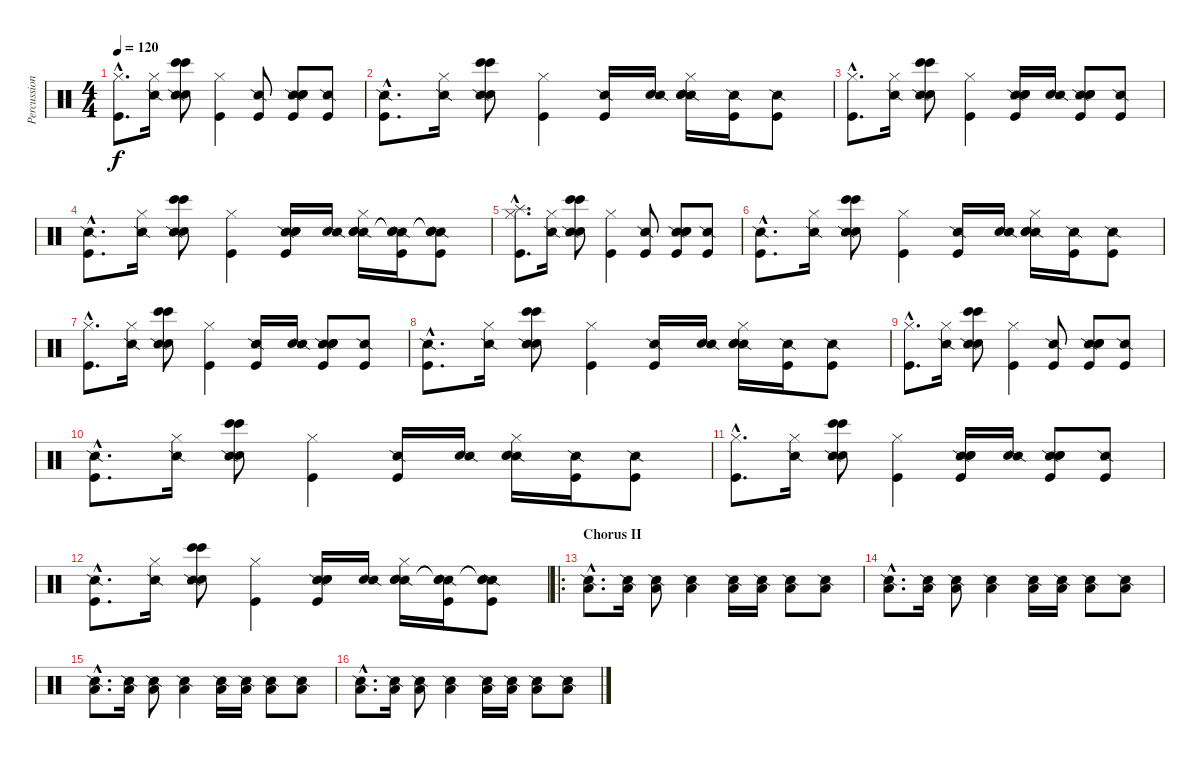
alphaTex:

\track ("Percussion" "Percussion") {instrument percussion}
\staff {score}
\articulation defaults
\ts (4 4)
\tempo 120
\clef neutral
\ks c
("Kick (hit)"{hac} "Hi-Hat (closed)"{hac}).8{d dy f} ("Hi-Hat (closed)" "Snare (side stick) 2").16 ("Snare (hit) 2" "Snare (side stick) 2" "Bongo High (hit)" "Bongo High (hit)").8 ("Kick (hit)" "Hi-Hat (closed)").4 ("Kick (hit)" "Snare (side stick) 2").8 ("Kick (hit)" "Snare (side stick) 2" "Electric Snare (hit)" "Electric Snare (hit)").8 ("Kick (hit)" "Snare (side stick) 2").8 |
("Kick (hit)"{hac} "Snare (side stick) 2"{hac}).8{d} ("Hi-Hat (closed)" "Snare (side stick) 2").16 ("Snare (hit) 2" "Snare (side stick) 2" "Bongo High (hit)" "Bongo High (hit)").8 ("Kick (hit)" "Hi-Hat (closed)").4 ("Kick (hit)" "Snare (side stick) 2").16 ("Snare (hit) 2" "Snare (side stick) 2").16 ("Hi-Hat (closed)" "Snare (side stick) 2" "Electric Snare (hit)" "Electric Snare (hit)").16 ("Kick (hit)" "Snare (side stick) 2").16 ("Kick (hit)" "Snare (side stick) 2").8 |
("Kick (hit)"{hac} "Hi-Hat (closed)"{hac}).8{d} ("Hi-Hat (closed)" "Snare (side stick) 2").16 ("Snare (hit) 2" "Snare (side stick) 2" "Bongo High (hit)" "Bongo High (hit)").8 ("Kick (hit)" "Hi-Hat (closed)").4 ("Kick (hit)" "Snare (side stick) 2" "Electric Snare (hit)" "Electric Snare (hit)").16 ("Snare (hit) 2" "Snare (side stick) 2").16 ("Kick (hit)" "Snare (side stick) 2" "Electric Snare (hit)" "Electric Snare (hit)").8 ("Kick (hit)" "Snare (side stick) 2").8 |
("Kick (hit)"{hac} "Snare (side stick) 2"{hac}).8{d} ("Hi-Hat (closed)" "Snare (side stick) 2").16 ("Snare (hit) 2" "Snare (side stick) 2" "Bongo High (hit)" "Bongo High (hit)").8 ("Kick (hit)" "Hi-Hat (closed)").4 ("Kick (hit)" "Snare (side stick) 2" "Electric Snare (hit)" "Electric Snare (hit)").16 ("Snare (hit) 2" "Snare (side stick) 2").16 ("Hi-Hat (closed)" "Snare (side stick) 2" "Electric Snare (hit)" "Electric Snare (hit)").16 ("Kick (hit)" "Snare (side stick) 2" "Snare (hit)"{t} "Snare (hit)"{t}).16 ("Kick (hit)" "Snare (side stick) 2" "Snare (hit)"{t} "Snare (hit)"{t}).8 |
("Kick (hit)"{hac} "Hi-Hat (closed)"{hac} "Splash (hit)"{hac}).8{d} ("Hi-Hat (closed)" "Snare (side stick) 2").16 ("Snare (hit) 2" "Snare (side stick) 2" "Bongo High (hit)" "Bongo High (hit)").8 ("Kick (hit)" "Hi-Hat (closed)").4 ("Kick (hit)" "Snare (side stick) 2").8 ("Kick (hit)" "Snare (side stick) 2" "Electric Snare (hit)" "Electric Snare (hit)").8 ("Kick (hit)" "Snare (side stick) 2").8 |
("Kick (hit)"{hac} "Snare (side stick) 2"{hac}).8{d} ("Hi-Hat (closed)" "Snare (side stick) 2").16 ("Snare (hit) 2" "Snare (side stick) 2" "Bongo High (hit)" "Bongo High (hit)").8 ("Kick (hit)" "Hi-Hat (closed)").4 ("Kick (hit)" "Snare (side stick) 2").16 ("Snare (hit) 2" "Snare (side stick) 2").16 ("Hi-Hat (closed)" "Snare (side stick) 2" "Electric Snare (hit)" "Electric Snare (hit)").16 ("Kick (hit)" "Snare (side stick) 2").16 ("Kick (hit)" "Snare (side stick) 2").8 |
("Kick (hit)"{hac} "Hi-Hat (closed)"{hac}).8{d} ("Hi-Hat (closed)" "Snare (side stick) 2").16 ("Snare (hit) 2" "Snare (side stick) 2" "Bongo High (hit)" "Bongo High (hit)").8 ("Kick (hit)" "Hi-Hat (closed)").4 ("Kick (hit)" "Snare (side stick) 2").16 ("Snare (hit) 2" "Snare (side stick) 2").16 ("Kick (hit)" "Snare (side stick) 2" "Electric Snare (hit)" "Electric Snare (hit)").8 ("Kick (hit)" "Snare (side stick) 2").8 |
("Kick (hit)"{hac} "Snare (side stick) 2"{hac}).8{d} ("Hi-Hat (closed)" "Snare (side stick) 2").16 ("Snare (hit) 2" "Snare (side stick) 2" "Bongo High (hit)" "Bongo High (hit)").8 ("Kick (hit)" "Hi-Hat (closed)").4 ("Kick (hit)" "Snare (side stick) 2").16 ("Snare (hit) 2" "Snare (side stick) 2").16 ("Hi-Hat (closed)" "Snare (side stick) 2" "Electric Snare (hit)" "Electric Snare (hit)").16 ("Kick (hit)" "Snare (side stick) 2").16 ("Kick (hit)" "Snare (side stick) 2").8 |
("Kick (hit)"{hac} "Hi-Hat (closed)"{hac}).8{d} ("Hi-Hat (closed)" "Snare (side stick) 2").16 ("Snare (hit) 2" "Snare (side stick) 2" "Bongo High (hit)" "Bongo High (hit)").8 ("Kick (hit)" "Hi-Hat (closed)").4 ("Kick (hit)" "Snare (side stick) 2").8 ("Kick (hit)" "Snare (side stick) 2" "Electric Snare (hit)" "Electric Snare (hit)").8 ("Kick (hit)" "Snare (side stick) 2").8 |
("Kick (hit)"{hac} "Snare (side stick) 2"{hac}).8{d} ("Hi-Hat (closed)" "Snare (side stick) 2").16 ("Snare (hit) 2" "Snare (side stick) 2" "Bongo High (hit)" "Bongo High (hit)").8 ("Kick (hit)" "Hi-Hat (closed)").4 ("Kick (hit)" "Snare (side stick) 2").16 ("Snare (hit) 2" "Snare (side stick) 2").16 ("Hi-Hat (closed)" "Snare (side stick) 2" "Electric Snare (hit)" "Electric Snare (hit)").16 ("Kick (hit)" "Snare (side stick) 2").16 ("Kick (hit)" "Snare (side stick) 2").8 |
("Kick (hit)"{hac} "Hi-Hat (closed)"{hac}).8{d} ("Hi-Hat (closed)" "Snare (side stick) 2").16 ("Snare (hit) 2" "Snare (side stick) 2" "Bongo High (hit)" "Bongo High (hit)").8 ("Kick (hit)" "Hi-Hat (closed)").4 ("Kick (hit)" "Snare (side stick) 2" "Electric Snare (hit)" "Electric Snare (hit)").16 ("Snare (hit) 2" "Snare (side stick) 2").16 ("Kick (hit)" "Snare (side stick) 2" "Electric Snare (hit)" "Electric Snare (hit)").8 ("Kick (hit)" "Snare (side stick) 2").8 |
("Kick (hit)"{hac} "Snare (side stick) 2"{hac}).8{d} ("Hi-Hat (closed)" "Snare (side stick) 2").16 ("Snare (hit) 2" "Snare (side stick) 2" "Bongo High (hit)" "Bongo High (hit)").8 ("Kick (hit)" "Hi-Hat (closed)").4 ("Kick (hit)" "Snare (side stick) 2" "Electric Snare (hit)" "Electric Snare (hit)").16 ("Snare (hit) 2" "Snare (side stick) 2").16 ("Hi-Hat (closed)" "Snare (side stick) 2" "Electric Snare (hit)" "Electric Snare (hit)").16 ("Kick (hit)" "Snare (side stick) 2" "Snare (hit)"{t} "Snare (hit)"{t}).16 ("Kick (hit)" "Snare (side stick) 2" "Snare (hit)"{t} "Snare (hit)"{t}).8 |
\ro
\section ("" "Chorus II")
("Low Floor Tom (hit)"{hac} "Snare (side stick) 2"{hac}).8{d balance 13} ("Low Floor Tom (hit)" "Snare (side stick) 2").16 ("Low Floor Tom (hit)" "Snare (side stick) 2").8 ("Low Floor Tom (hit)" "Snare (side stick) 2").4 ("Low Floor Tom (hit)" "Snare (side stick) 2").16 ("Low Floor Tom (hit)" "Snare (side stick) 2").16 ("Low Floor Tom (hit)" "Snare (side stick) 2").8 ("Low Floor Tom (hit)" "Snare (side stick) 2").8 |
("Low Floor Tom (hit)"{hac} "Snare (side stick) 2"{hac}).8{d balance 13} ("Low Floor Tom (hit)" "Snare (side stick) 2").16 ("Low Floor Tom (hit)" "Snare (side stick) 2").8 ("Low Floor Tom (hit)" "Snare (side stick) 2").4 ("Low Floor Tom (hit)" "Snare (side stick) 2").16 ("Low Floor Tom (hit)" "Snare (side stick) 2").16 ("Low Floor Tom (hit)" "Snare (side stick) 2").8 ("Low Floor Tom (hit)" "Snare (side stick) 2").8 |
("Low Floor Tom (hit)"{hac} "Snare (side stick) 2"{hac}).8{d balance 13} ("Low Floor Tom (hit)" "Snare (side stick) 2").16 ("Low Floor Tom (hit)" "Snare (side stick) 2").8 ("Low Floor Tom (hit)" "Snare (side stick) 2").4 ("Low Floor Tom (hit)" "Snare (side stick) 2").16 ("Low Floor Tom (hit)" "Snare (side stick) 2").16 ("Low Floor Tom (hit)" "Snare (side stick) 2").8 ("Low Floor Tom (hit)" "Snare (side stick) 2").8 |
("Low Floor Tom (hit)"{hac} "Snare (side stick) 2"{hac}).8{d balance 13} ("Low Floor Tom (hit)" "Snare (side stick) 2").16 ("Low Floor Tom (hit)" "Snare (side stick) 2").8 ("Low Floor Tom (hit)" "Snare (side stick) 2").4 ("Low Floor Tom (hit)" "Snare (side stick) 2").16 ("Low Floor Tom (hit)" "Snare (side stick) 2").16 ("Low Floor Tom (hit)" "Snare (side stick) 2").8 ("Low Floor Tom (hit)" "Snare (side stick) 2").8
